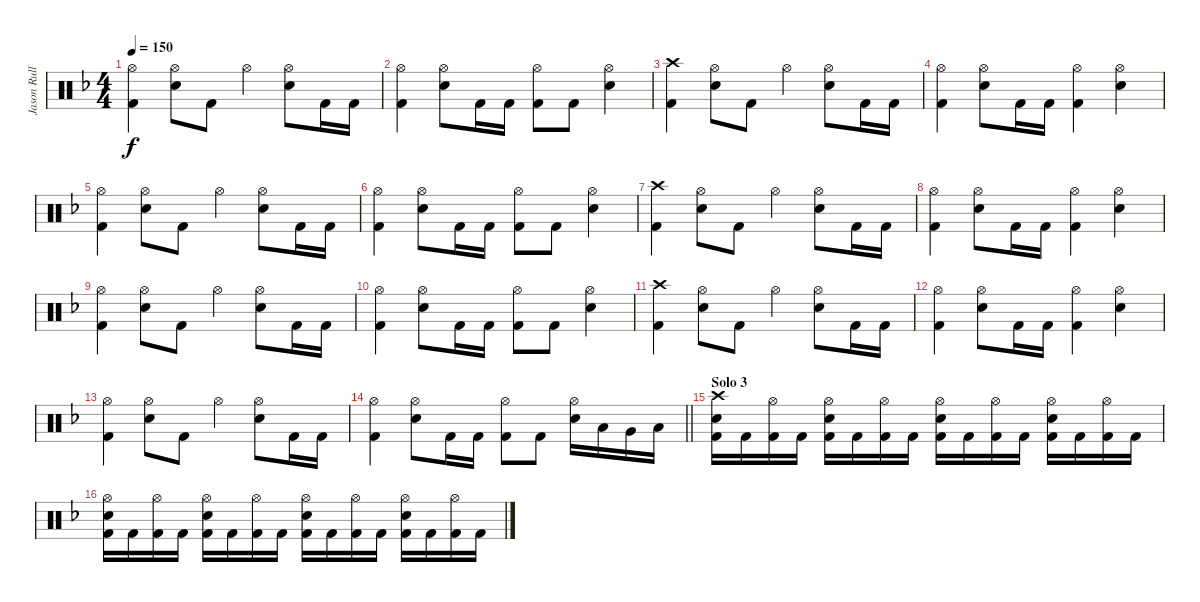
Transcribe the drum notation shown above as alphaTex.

\track ("Jason Rullo" "Jason Rull") {instrument percussion}
\staff {score}
\articulation defaults
\ts (4 4)
\tempo 150
\clef neutral
\ks dminor
("Hi-Hat (open)" "Kick (hit) 2").4{dy f} ("Hi-Hat (open)" "Electric Snare (hit)").8 "Kick (hit) 2".8 "Hi-Hat (open)".4 ("Hi-Hat (open)" "Electric Snare (hit)").8 "Kick (hit) 2".16 "Kick (hit) 2".16 |
("Hi-Hat (open)" "Kick (hit) 2").4 ("Hi-Hat (open)" "Electric Snare (hit)").8 "Kick (hit) 2".16 "Kick (hit) 2".16 ("Hi-Hat (open)" "Kick (hit) 2").8 "Kick (hit) 2".8 ("Hi-Hat (open)" "Electric Snare (hit)").4 |
("Crash high (hit)" "Kick (hit) 2").4 ("Hi-Hat (open)" "Electric Snare (hit)").8 "Kick (hit) 2".8 "Hi-Hat (open)".4 ("Hi-Hat (open)" "Electric Snare (hit)").8 "Kick (hit) 2".16 "Kick (hit) 2".16 |
("Hi-Hat (open)" "Kick (hit) 2").4 ("Hi-Hat (open)" "Electric Snare (hit)").8 "Kick (hit) 2".16 "Kick (hit) 2".16 ("Hi-Hat (open)" "Kick (hit) 2").4 ("Hi-Hat (open)" "Electric Snare (hit)").4 |
("Hi-Hat (open)" "Kick (hit) 2").4 ("Hi-Hat (open)" "Electric Snare (hit)").8 "Kick (hit) 2".8 "Hi-Hat (open)".4 ("Hi-Hat (open)" "Electric Snare (hit)").8 "Kick (hit) 2".16 "Kick (hit) 2".16 |
("Hi-Hat (open)" "Kick (hit) 2").4 ("Hi-Hat (open)" "Electric Snare (hit)").8 "Kick (hit) 2".16 "Kick (hit) 2".16 ("Hi-Hat (open)" "Kick (hit) 2").8 "Kick (hit) 2".8 ("Hi-Hat (open)" "Electric Snare (hit)").4 |
("Crash high (hit)" "Kick (hit) 2").4 ("Hi-Hat (open)" "Electric Snare (hit)").8 "Kick (hit) 2".8 "Hi-Hat (open)".4 ("Hi-Hat (open)" "Electric Snare (hit)").8 "Kick (hit) 2".16 "Kick (hit) 2".16 |
("Hi-Hat (open)" "Kick (hit) 2").4 ("Hi-Hat (open)" "Electric Snare (hit)").8 "Kick (hit) 2".16 "Kick (hit) 2".16 ("Hi-Hat (open)" "Kick (hit) 2").4 ("Hi-Hat (open)" "Electric Snare (hit)").4 |
("Hi-Hat (open)" "Kick (hit) 2").4 ("Hi-Hat (open)" "Electric Snare (hit)").8 "Kick (hit) 2".8 "Hi-Hat (open)".4 ("Hi-Hat (open)" "Electric Snare (hit)").8 "Kick (hit) 2".16 "Kick (hit) 2".16 |
("Hi-Hat (open)" "Kick (hit) 2").4 ("Hi-Hat (open)" "Electric Snare (hit)").8 "Kick (hit) 2".16 "Kick (hit) 2".16 ("Hi-Hat (open)" "Kick (hit) 2").8 "Kick (hit) 2".8 ("Hi-Hat (open)" "Electric Snare (hit)").4 |
("Crash high (hit)" "Kick (hit) 2").4 ("Hi-Hat (open)" "Electric Snare (hit)").8 "Kick (hit) 2".8 "Hi-Hat (open)".4 ("Hi-Hat (open)" "Electric Snare (hit)").8 "Kick (hit) 2".16 "Kick (hit) 2".16 |
("Hi-Hat (open)" "Kick (hit) 2").4 ("Hi-Hat (open)" "Electric Snare (hit)").8 "Kick (hit) 2".16 "Kick (hit) 2".16 ("Hi-Hat (open)" "Kick (hit) 2").4 ("Hi-Hat (open)" "Electric Snare (hit)").4 |
("Hi-Hat (open)" "Kick (hit) 2").4 ("Hi-Hat (open)" "Electric Snare (hit)").8 "Kick (hit) 2".8 "Hi-Hat (open)".4 ("Hi-Hat (open)" "Electric Snare (hit)").8 "Kick (hit) 2".16 "Kick (hit) 2".16 |
\barLineRight lightlight
("Hi-Hat (open)" "Kick (hit) 2").4 ("Hi-Hat (open)" "Electric Snare (hit)").8 "Kick (hit) 2".16 "Kick (hit) 2".16 ("Hi-Hat (open)" "Kick (hit) 2").8 "Kick (hit) 2".8 ("Hi-Hat (open)" "Electric Snare (hit)").16 "Low Tom (hit)".16 "Very Low Tom (hit)".16 "Low Floor Tom (hit)".16 |
\section ("" "Solo 3")
("Crash high (hit)" "Electric Snare (hit)" "Kick (hit) 2").16 "Kick (hit) 2".16 ("Hi-Hat (open)" "Kick (hit) 2").16 "Kick (hit) 2".16 ("Hi-Hat (open)" "Electric Snare (hit)" "Kick (hit) 2").16 "Kick (hit) 2".16 ("Hi-Hat (open)" "Kick (hit) 2").16 "Kick (hit) 2".16 ("Hi-Hat (open)" "Electric Snare (hit)" "Kick (hit) 2").16 "Kick (hit) 2".16 ("Hi-Hat (open)" "Kick (hit) 2").16 "Kick (hit) 2".16 ("Hi-Hat (open)" "Electric Snare (hit)" "Kick (hit) 2").16 "Kick (hit) 2".16 ("Hi-Hat (open)" "Kick (hit) 2").16 "Kick (hit) 2".16 |
("Hi-Hat (open)" "Electric Snare (hit)" "Kick (hit) 2").16 "Kick (hit) 2".16 ("Hi-Hat (open)" "Kick (hit) 2").16 "Kick (hit) 2".16 ("Hi-Hat (open)" "Electric Snare (hit)" "Kick (hit) 2").16 "Kick (hit) 2".16 ("Hi-Hat (open)" "Kick (hit) 2").16 "Kick (hit) 2".16 ("Hi-Hat (open)" "Electric Snare (hit)" "Kick (hit) 2").16 "Kick (hit) 2".16 ("Hi-Hat (open)" "Kick (hit) 2").16 "Kick (hit) 2".16 ("Hi-Hat (open)" "Electric Snare (hit)" "Kick (hit) 2").16 "Kick (hit) 2".16 ("Hi-Hat (open)" "Kick (hit) 2").16 "Kick (hit) 2".16
